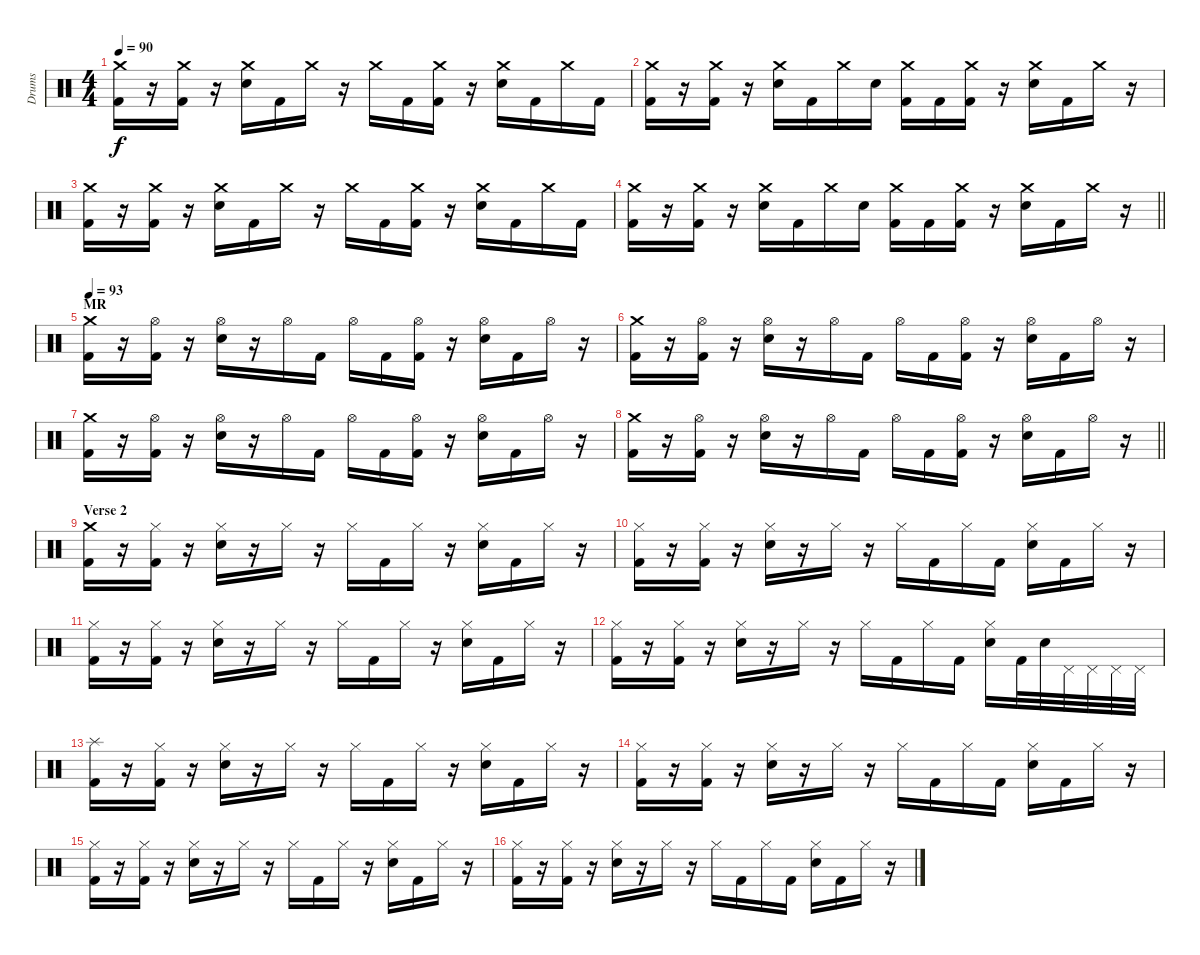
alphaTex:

\track ("Drums" "Drums") {instrument percussion}
\staff {score}
\articulation defaults
\ts (4 4)
\tempo 90
\clef neutral
\ks c
("Crash medium (hit)" "Kick (hit) 2").16{dy f} r.16 ("Crash medium (hit)" "Kick (hit) 2").16 r.16 ("Crash medium (hit)" "Electric Snare (hit)").16 "Kick (hit) 2".16 "Crash medium (hit)".16 r.16 "Crash medium (hit)".16 "Kick (hit) 2".16 ("Crash medium (hit)" "Kick (hit) 2").16 r.16 ("Crash medium (hit)" "Electric Snare (hit)").16 "Kick (hit) 2".16 "Crash medium (hit)".16 "Kick (hit) 2".16 |
("Crash medium (hit)" "Kick (hit) 2").16 r.16 ("Crash medium (hit)" "Kick (hit) 2").16 r.16 ("Crash medium (hit)" "Electric Snare (hit)").16 "Kick (hit) 2".16 "Crash medium (hit)".16 "Electric Snare (hit)".16 ("Crash medium (hit)" "Kick (hit) 2").16 "Kick (hit) 2".16 ("Crash medium (hit)" "Kick (hit) 2").16 r.16 ("Crash medium (hit)" "Electric Snare (hit)").16 "Kick (hit) 2".16 "Crash medium (hit)".16 r.16 |
("Crash medium (hit)" "Kick (hit) 2").16 r.16 ("Crash medium (hit)" "Kick (hit) 2").16 r.16 ("Crash medium (hit)" "Electric Snare (hit)").16 "Kick (hit) 2".16 "Crash medium (hit)".16 r.16 "Crash medium (hit)".16 "Kick (hit) 2".16 ("Crash medium (hit)" "Kick (hit) 2").16 r.16 ("Crash medium (hit)" "Electric Snare (hit)").16 "Kick (hit) 2".16 "Crash medium (hit)".16 "Kick (hit) 2".16 |
\barLineRight lightlight
("Crash medium (hit)" "Kick (hit) 2").16 r.16 ("Crash medium (hit)" "Kick (hit) 2").16 r.16 ("Crash medium (hit)" "Electric Snare (hit)").16 "Kick (hit) 2".16 "Crash medium (hit)".16 "Electric Snare (hit)".16 ("Crash medium (hit)" "Kick (hit) 2").16 "Kick (hit) 2".16 ("Crash medium (hit)" "Kick (hit) 2").16 r.16 ("Crash medium (hit)" "Electric Snare (hit)").16 "Kick (hit) 2".16 "Crash medium (hit)".16 r.16 |
\section ("" "MR")
\tempo 93
("Crash medium (hit)" "Kick (hit) 2").16 r.16 ("Hi-Hat (open)" "Kick (hit) 2").16 r.16 ("Hi-Hat (open)" "Electric Snare (hit)").16 r.16 "Hi-Hat (open)".16 "Kick (hit) 2".16 "Hi-Hat (open)".16 "Kick (hit) 2".16 ("Hi-Hat (open)" "Kick (hit) 2").16 r.16 ("Hi-Hat (open)" "Electric Snare (hit)").16 "Kick (hit) 2".16 "Hi-Hat (open)".16 r.16 |
("Crash medium (hit)" "Kick (hit) 2").16 r.16 ("Hi-Hat (open)" "Kick (hit) 2").16 r.16 ("Hi-Hat (open)" "Electric Snare (hit)").16 r.16 "Hi-Hat (open)".16 "Kick (hit) 2".16 "Hi-Hat (open)".16 "Kick (hit) 2".16 ("Hi-Hat (open)" "Kick (hit) 2").16 r.16 ("Hi-Hat (open)" "Electric Snare (hit)").16 "Kick (hit) 2".16 "Hi-Hat (open)".16 r.16 |
("Crash medium (hit)" "Kick (hit) 2").16 r.16 ("Hi-Hat (open)" "Kick (hit) 2").16 r.16 ("Hi-Hat (open)" "Electric Snare (hit)").16 r.16 "Hi-Hat (open)".16 "Kick (hit) 2".16 "Hi-Hat (open)".16 "Kick (hit) 2".16 ("Hi-Hat (open)" "Kick (hit) 2").16 r.16 ("Hi-Hat (open)" "Electric Snare (hit)").16 "Kick (hit) 2".16 "Hi-Hat (open)".16 r.16 |
\barLineRight lightlight
("Crash medium (hit)" "Kick (hit) 2").16 r.16 ("Hi-Hat (open)" "Kick (hit) 2").16 r.16 ("Hi-Hat (open)" "Electric Snare (hit)").16 r.16 "Hi-Hat (open)".16 "Kick (hit) 2".16 "Hi-Hat (open)".16 "Kick (hit) 2".16 ("Hi-Hat (open)" "Kick (hit) 2").16 r.16 ("Hi-Hat (open)" "Electric Snare (hit)").16 "Kick (hit) 2".16 "Hi-Hat (open)".16 r.16 |
\section ("" "Verse 2")
("Crash medium (hit)" "Kick (hit) 2").16 r.16 ("Hi-Hat (closed)" "Kick (hit) 2").16 r.16 ("Hi-Hat (closed)" "Electric Snare (hit)").16 r.16 "Hi-Hat (closed)".16 r.16 "Hi-Hat (closed)".16 "Kick (hit) 2".16 "Hi-Hat (closed)".16 r.16 ("Hi-Hat (closed)" "Electric Snare (hit)").16 "Kick (hit) 2".16 "Hi-Hat (closed)".16 r.16 |
("Hi-Hat (closed)" "Kick (hit) 2").16 r.16 ("Hi-Hat (closed)" "Kick (hit) 2").16 r.16 ("Hi-Hat (closed)" "Electric Snare (hit)").16 r.16 "Hi-Hat (closed)".16 r.16 "Hi-Hat (closed)".16 "Kick (hit) 2".16 "Hi-Hat (closed)".16 "Kick (hit) 2".16 ("Hi-Hat (closed)" "Electric Snare (hit)").16 "Kick (hit) 2".16 "Hi-Hat (closed)".16 r.16 |
("Hi-Hat (closed)" "Kick (hit) 2").16 r.16 ("Hi-Hat (closed)" "Kick (hit) 2").16 r.16 ("Hi-Hat (closed)" "Electric Snare (hit)").16 r.16 "Hi-Hat (closed)".16 r.16 "Hi-Hat (closed)".16 "Kick (hit) 2".16 "Hi-Hat (closed)".16 r.16 ("Hi-Hat (closed)" "Electric Snare (hit)").16 "Kick (hit) 2".16 "Hi-Hat (closed)".16 r.16 |
("Hi-Hat (closed)" "Kick (hit) 2").16 r.16 ("Hi-Hat (closed)" "Kick (hit) 2").16 r.16 ("Hi-Hat (closed)" "Electric Snare (hit)").16 r.16 "Hi-Hat (closed)".16 r.16 "Hi-Hat (closed)".16 "Kick (hit) 2".16 "Hi-Hat (closed)".16 "Kick (hit) 2".16 ("Hi-Hat (closed)" "Electric Snare (hit)").16 "Kick (hit) 2".32 "Electric Snare (hit)".32 "Pedal Hi-Hat (hit)".32 "Pedal Hi-Hat (hit)".32 "Pedal Hi-Hat (hit)".32 "Pedal Hi-Hat (hit)".32 |
("Splash (hit)" "Kick (hit) 2").16 r.16 ("Hi-Hat (closed)" "Kick (hit) 2").16 r.16 ("Hi-Hat (closed)" "Electric Snare (hit)").16 r.16 "Hi-Hat (closed)".16 r.16 "Hi-Hat (closed)".16 "Kick (hit) 2".16 "Hi-Hat (closed)".16 r.16 ("Hi-Hat (closed)" "Electric Snare (hit)").16 "Kick (hit) 2".16 "Hi-Hat (closed)".16 r.16 |
("Hi-Hat (closed)" "Kick (hit) 2").16 r.16 ("Hi-Hat (closed)" "Kick (hit) 2").16 r.16 ("Hi-Hat (closed)" "Electric Snare (hit)").16 r.16 "Hi-Hat (closed)".16 r.16 "Hi-Hat (closed)".16 "Kick (hit) 2".16 "Hi-Hat (closed)".16 "Kick (hit) 2".16 ("Hi-Hat (closed)" "Electric Snare (hit)").16 "Kick (hit) 2".16 "Hi-Hat (closed)".16 r.16 |
("Hi-Hat (closed)" "Kick (hit) 2").16 r.16 ("Hi-Hat (closed)" "Kick (hit) 2").16 r.16 ("Hi-Hat (closed)" "Electric Snare (hit)").16 r.16 "Hi-Hat (closed)".16 r.16 "Hi-Hat (closed)".16 "Kick (hit) 2".16 "Hi-Hat (closed)".16 r.16 ("Hi-Hat (closed)" "Electric Snare (hit)").16 "Kick (hit) 2".16 "Hi-Hat (closed)".16 r.16 |
("Hi-Hat (closed)" "Kick (hit) 2").16 r.16 ("Hi-Hat (closed)" "Kick (hit) 2").16 r.16 ("Hi-Hat (closed)" "Electric Snare (hit)").16 r.16 "Hi-Hat (closed)".16 r.16 "Hi-Hat (closed)".16 "Kick (hit) 2".16 "Hi-Hat (closed)".16 "Kick (hit) 2".16 ("Hi-Hat (closed)" "Electric Snare (hit)").16 "Kick (hit) 2".16 "Hi-Hat (closed)".16 r.16
